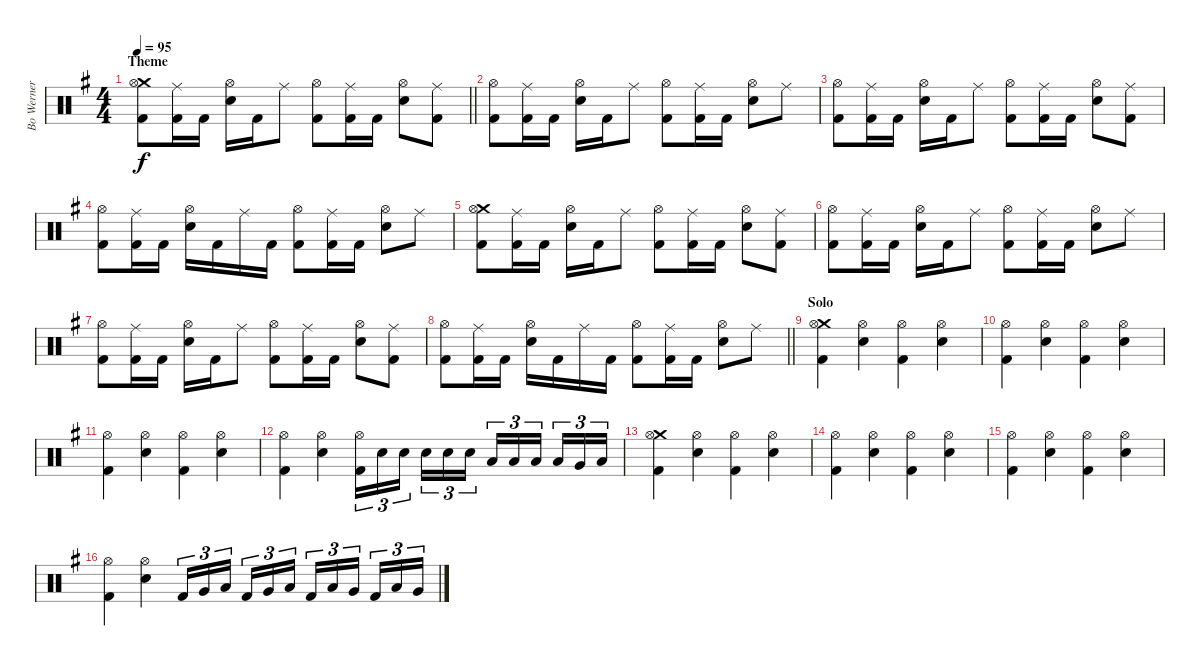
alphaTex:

\track ("Bo Werner" "Bo Werner") {instrument percussion}
\staff {score}
\articulation defaults
\ts (4 4)
\section ("" "Theme")
\tempo 95
\clef neutral
\barLineRight lightlight
\ks g
("Crash medium (hit)" "Hi-Hat (open)" "Kick (hit) 2").8{dy f} ("Ride (middle)" "Kick (hit) 2").16 "Kick (hit) 2".16 ("Hi-Hat (open)" "Snare (hit) 2").16 "Kick (hit) 2".16 "Ride (middle)".8 ("Hi-Hat (open)" "Kick (hit) 2").8 ("Ride (middle)" "Kick (hit) 2").16 "Kick (hit) 2".16 ("Hi-Hat (open)" "Snare (hit) 2").8 ("Ride (middle)" "Kick (hit) 2").8 |
("Hi-Hat (open)" "Kick (hit) 2").8 ("Ride (middle)" "Kick (hit) 2").16 "Kick (hit) 2".16 ("Hi-Hat (open)" "Snare (hit) 2").16 "Kick (hit) 2".16 "Ride (middle)".8 ("Hi-Hat (open)" "Kick (hit) 2").8 ("Ride (middle)" "Kick (hit) 2").16 "Kick (hit) 2".16 ("Hi-Hat (open)" "Snare (hit) 2").8 "Ride (middle)".8 |
("Hi-Hat (open)" "Kick (hit) 2").8 ("Ride (middle)" "Kick (hit) 2").16 "Kick (hit) 2".16 ("Hi-Hat (open)" "Snare (hit) 2").16 "Kick (hit) 2".16 "Ride (middle)".8 ("Hi-Hat (open)" "Kick (hit) 2").8 ("Ride (middle)" "Kick (hit) 2").16 "Kick (hit) 2".16 ("Hi-Hat (open)" "Snare (hit) 2").8 ("Ride (middle)" "Kick (hit) 2").8 |
("Hi-Hat (open)" "Kick (hit) 2").8 ("Ride (middle)" "Kick (hit) 2").16 "Kick (hit) 2".16 ("Hi-Hat (open)" "Snare (hit) 2").16 "Kick (hit) 2".16 "Ride (middle)".16 "Kick (hit) 2".16 ("Hi-Hat (open)" "Kick (hit) 2").8 ("Ride (middle)" "Kick (hit) 2").16 "Kick (hit) 2".16 ("Hi-Hat (open)" "Snare (hit) 2").8 "Ride (middle)".8 |
("Crash medium (hit)" "Hi-Hat (open)" "Kick (hit) 2").8 ("Ride (middle)" "Kick (hit) 2").16 "Kick (hit) 2".16 ("Hi-Hat (open)" "Snare (hit) 2").16 "Kick (hit) 2".16 "Ride (middle)".8 ("Hi-Hat (open)" "Kick (hit) 2").8 ("Ride (middle)" "Kick (hit) 2").16 "Kick (hit) 2".16 ("Hi-Hat (open)" "Snare (hit) 2").8 ("Ride (middle)" "Kick (hit) 2").8 |
("Hi-Hat (open)" "Kick (hit) 2").8 ("Ride (middle)" "Kick (hit) 2").16 "Kick (hit) 2".16 ("Hi-Hat (open)" "Snare (hit) 2").16 "Kick (hit) 2".16 "Ride (middle)".8 ("Hi-Hat (open)" "Kick (hit) 2").8 ("Ride (middle)" "Kick (hit) 2").16 "Kick (hit) 2".16 ("Hi-Hat (open)" "Snare (hit) 2").8 "Ride (middle)".8 |
("Hi-Hat (open)" "Kick (hit) 2").8 ("Ride (middle)" "Kick (hit) 2").16 "Kick (hit) 2".16 ("Hi-Hat (open)" "Snare (hit) 2").16 "Kick (hit) 2".16 "Ride (middle)".8 ("Hi-Hat (open)" "Kick (hit) 2").8 ("Ride (middle)" "Kick (hit) 2").16 "Kick (hit) 2".16 ("Hi-Hat (open)" "Snare (hit) 2").8 ("Ride (middle)" "Kick (hit) 2").8 |
\barLineRight lightlight
("Hi-Hat (open)" "Kick (hit) 2").8 ("Ride (middle)" "Kick (hit) 2").16 "Kick (hit) 2".16 ("Hi-Hat (open)" "Snare (hit) 2").16 "Kick (hit) 2".16 "Ride (middle)".16 "Kick (hit) 2".16 ("Hi-Hat (open)" "Kick (hit) 2").8 ("Ride (middle)" "Kick (hit) 2").16 "Kick (hit) 2".16 ("Hi-Hat (open)" "Snare (hit) 2").8 "Ride (middle)".8 |
\section ("" "Solo")
("Crash medium (hit)" "Hi-Hat (open)" "Kick (hit) 2").4 ("Hi-Hat (open)" "Snare (hit) 2").4 ("Hi-Hat (open)" "Kick (hit) 2").4 ("Hi-Hat (open)" "Snare (hit) 2").4 |
("Hi-Hat (open)" "Kick (hit) 2").4 ("Hi-Hat (open)" "Snare (hit) 2").4 ("Hi-Hat (open)" "Kick (hit) 2").4 ("Hi-Hat (open)" "Snare (hit) 2").4 |
("Hi-Hat (open)" "Kick (hit) 2").4 ("Hi-Hat (open)" "Snare (hit) 2").4 ("Hi-Hat (open)" "Kick (hit) 2").4 ("Hi-Hat (open)" "Snare (hit) 2").4 |
("Hi-Hat (open)" "Kick (hit) 2").4 ("Hi-Hat (open)" "Snare (hit) 2").4 ("Hi-Hat (open)" "Kick (hit) 2").16{tu (3 2)} "Snare (hit) 2".16{tu (3 2)} "Snare (hit) 2".16{tu (3 2) beam splitsecondary} "Snare (hit) 2".16{tu (3 2)} "Snare (hit) 2".16{tu (3 2)} "Snare (hit) 2".16{tu (3 2)} "Low Tom (hit)".16{tu (3 2)} "Low Tom (hit)".16{tu (3 2)} "Low Tom (hit)".16{tu (3 2) beam splitsecondary} "Low Tom (hit)".16{tu (3 2)} "Very Low Tom (hit)".16{tu (3 2)} "Low Floor Tom (hit)".16{tu (3 2)} |
("Crash medium (hit)" "Hi-Hat (open)" "Kick (hit) 2").4 ("Hi-Hat (open)" "Snare (hit) 2").4 ("Hi-Hat (open)" "Kick (hit) 2").4 ("Hi-Hat (open)" "Snare (hit) 2").4 |
("Hi-Hat (open)" "Kick (hit) 2").4 ("Hi-Hat (open)" "Snare (hit) 2").4 ("Hi-Hat (open)" "Kick (hit) 2").4 ("Hi-Hat (open)" "Snare (hit) 2").4 |
("Hi-Hat (open)" "Kick (hit) 2").4 ("Hi-Hat (open)" "Snare (hit) 2").4 ("Hi-Hat (open)" "Kick (hit) 2").4 ("Hi-Hat (open)" "Snare (hit) 2").4 |
("Hi-Hat (open)" "Kick (hit) 2").4 ("Hi-Hat (open)" "Snare (hit) 2").4 "Kick (hit) 2".16{tu (3 2)} "Very Low Tom (hit)".16{tu (3 2)} "Low Floor Tom (hit)".16{tu (3 2) beam splitsecondary} "Kick (hit) 2".16{tu (3 2)} "Very Low Tom (hit)".16{tu (3 2)} "Low Floor Tom (hit)".16{tu (3 2)} "Kick (hit) 2".16{tu (3 2)} "Low Tom (hit)".16{tu (3 2)} "Very Low Tom (hit)".16{tu (3 2) beam splitsecondary} "Kick (hit) 2".16{tu (3 2)} "Low Tom (hit)".16{tu (3 2)} "Very Low Tom (hit)".16{tu (3 2)}
